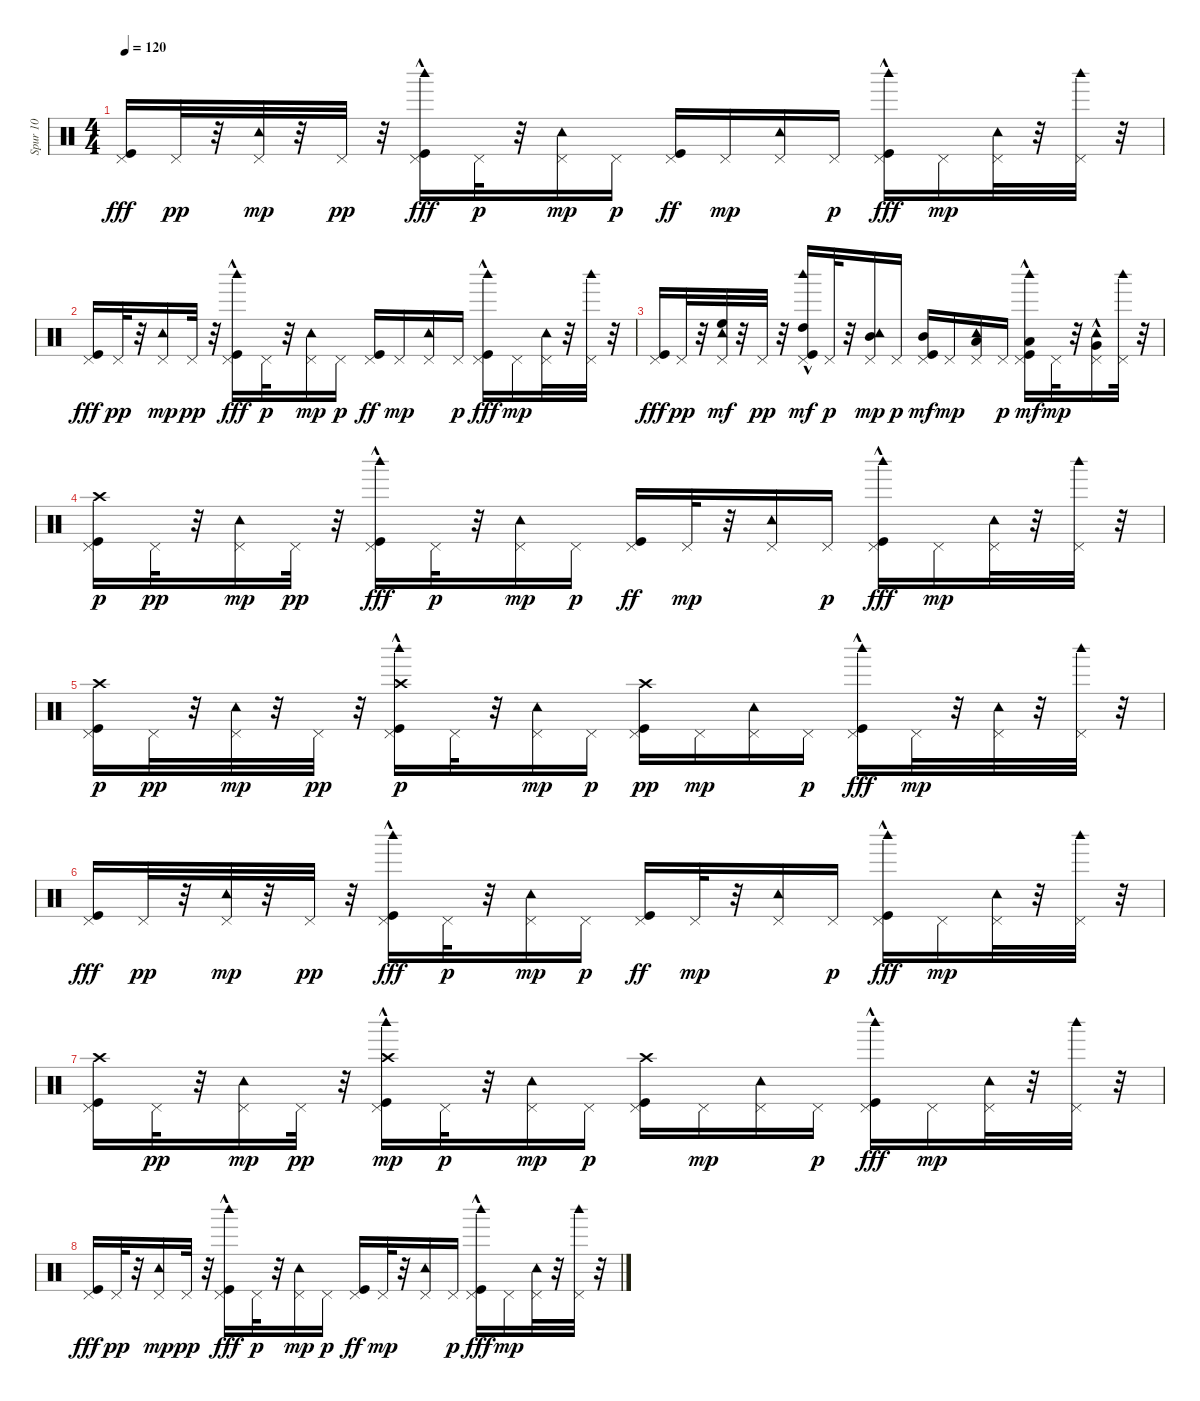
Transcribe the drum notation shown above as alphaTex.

\track ("Spur 10" "Spur 10") {instrument percussion}
\staff {score}
\articulation defaults
\ts (4 4)
\tempo 120
\clef neutral
\ks c
("Pedal Hi-Hat (hit)" "Kick (hit)").16{dy fff} "Pedal Hi-Hat (hit)".32{dy pp} r.32 ("Pedal Hi-Hat (hit)" "Tambourine (hit)").32{dy mp} r.32 "Pedal Hi-Hat (hit)".32{dy pp} r.32 ("Kick (hit)" "Pedal Hi-Hat (hit)" "Woodblock high (hit)"{hac}).16{dy fff} "Pedal Hi-Hat (hit)".32{dy p} r.32 ("Pedal Hi-Hat (hit)" "Tambourine (hit)").16{dy mp} "Pedal Hi-Hat (hit)".16{dy p} ("Kick (hit)" "Pedal Hi-Hat (hit)").16{dy ff} "Pedal Hi-Hat (hit)".16{dy mp} ("Pedal Hi-Hat (hit)" "Tambourine (hit)").16 "Pedal Hi-Hat (hit)".16{dy p} ("Kick (hit)"{hac} "Pedal Hi-Hat (hit)" "Woodblock high (hit)").16{dy fff} "Pedal Hi-Hat (hit)".16{dy mp} ("Pedal Hi-Hat (hit)" "Tambourine (hit)").32 r.32 ("Pedal Hi-Hat (hit)" "Woodblock high (hit)").32 r.32 |
("Pedal Hi-Hat (hit)" "Kick (hit)").16{dy fff} "Pedal Hi-Hat (hit)".32{dy pp} r.32 ("Pedal Hi-Hat (hit)" "Tambourine (hit)").16{dy mp} "Pedal Hi-Hat (hit)".32{dy pp} r.32 ("Kick (hit)" "Pedal Hi-Hat (hit)" "Woodblock high (hit)"{hac}).16{dy fff} "Pedal Hi-Hat (hit)".32{dy p} r.32 ("Pedal Hi-Hat (hit)" "Tambourine (hit)").16{dy mp} "Pedal Hi-Hat (hit)".16{dy p} ("Kick (hit)" "Pedal Hi-Hat (hit)").16{dy ff} "Pedal Hi-Hat (hit)".16{dy mp} ("Pedal Hi-Hat (hit)" "Tambourine (hit)").16 "Pedal Hi-Hat (hit)".16{dy p} ("Kick (hit)"{hac} "Pedal Hi-Hat (hit)" "Woodblock high (hit)").16{dy fff} "Pedal Hi-Hat (hit)".16{dy mp} ("Pedal Hi-Hat (hit)" "Tambourine (hit)").32 r.32 ("Pedal Hi-Hat (hit)" "Woodblock high (hit)").32 r.32 |
("Pedal Hi-Hat (hit)" "Kick (hit)").16{dy fff} "Pedal Hi-Hat (hit)".32{dy pp} r.32 ("Pedal Hi-Hat (hit)" "Tambourine (hit)" "High Floor Tom (hit)").32{dy mf} r.32 "Pedal Hi-Hat (hit)".32{dy pp} r.32 ("Kick (hit)" "Pedal Hi-Hat (hit)" "Woodblock high (hit)"{hac} "High Tom (hit)").16{dy mf} "Pedal Hi-Hat (hit)".32{dy p} r.32 ("Pedal Hi-Hat (hit)" "Tambourine (hit)" "Mid Tom (hit)").16{dy mp} "Pedal Hi-Hat (hit)".16{dy p} ("Kick (hit)" "Pedal Hi-Hat (hit)" "Mid Tom (hit)").16{dy mf} "Pedal Hi-Hat (hit)".16{dy mp} ("Pedal Hi-Hat (hit)" "Tambourine (hit)" "Low Tom (hit)").16 "Pedal Hi-Hat (hit)".16{dy p} ("Kick (hit)"{hac} "Pedal Hi-Hat (hit)" "Woodblock high (hit)" "Low Tom (hit)").16{dy mf} "Pedal Hi-Hat (hit)".32{dy mp} r.32 ("Pedal Hi-Hat (hit)" "Tambourine (hit)" "Very Low Tom (hit)"{hac}).16 ("Pedal Hi-Hat (hit)" "Woodblock high (hit)").32 r.32 |
("Pedal Hi-Hat (hit)" "Kick (hit)" "Crash high (hit)").16{dy p} "Pedal Hi-Hat (hit)".32{dy pp} r.32 ("Pedal Hi-Hat (hit)" "Tambourine (hit)").16{dy mp} "Pedal Hi-Hat (hit)".32{dy pp} r.32 ("Kick (hit)" "Pedal Hi-Hat (hit)" "Woodblock high (hit)"{hac}).16{dy fff} "Pedal Hi-Hat (hit)".32{dy p} r.32 ("Pedal Hi-Hat (hit)" "Tambourine (hit)").16{dy mp} "Pedal Hi-Hat (hit)".16{dy p} ("Kick (hit)" "Pedal Hi-Hat (hit)").16{dy ff} "Pedal Hi-Hat (hit)".32{dy mp} r.32 ("Pedal Hi-Hat (hit)" "Tambourine (hit)").16 "Pedal Hi-Hat (hit)".16{dy p} ("Kick (hit)"{hac} "Pedal Hi-Hat (hit)" "Woodblock high (hit)").16{dy fff} "Pedal Hi-Hat (hit)".16{dy mp} ("Pedal Hi-Hat (hit)" "Tambourine (hit)").32 r.32 ("Pedal Hi-Hat (hit)" "Woodblock high (hit)").32 r.32 |
("Pedal Hi-Hat (hit)" "Kick (hit)" "Crash high (hit)").16{dy p} "Pedal Hi-Hat (hit)".32{dy pp} r.32 ("Pedal Hi-Hat (hit)" "Tambourine (hit)").32{dy mp} r.32 "Pedal Hi-Hat (hit)".32{dy pp} r.32 ("Kick (hit)" "Pedal Hi-Hat (hit)" "Woodblock high (hit)"{hac} "Crash high (hit)").16{dy p} "Pedal Hi-Hat (hit)".32 r.32 ("Pedal Hi-Hat (hit)" "Tambourine (hit)").16{dy mp} "Pedal Hi-Hat (hit)".16{dy p} ("Kick (hit)" "Pedal Hi-Hat (hit)" "Crash high (hit)").16{dy pp} "Pedal Hi-Hat (hit)".16{dy mp} ("Pedal Hi-Hat (hit)" "Tambourine (hit)").16 "Pedal Hi-Hat (hit)".16{dy p} ("Kick (hit)"{hac} "Pedal Hi-Hat (hit)" "Woodblock high (hit)").16{dy fff} "Pedal Hi-Hat (hit)".32{dy mp} r.32 ("Pedal Hi-Hat (hit)" "Tambourine (hit)").32 r.32 ("Pedal Hi-Hat (hit)" "Woodblock high (hit)").32 r.32 |
("Pedal Hi-Hat (hit)" "Kick (hit)").16{dy fff} "Pedal Hi-Hat (hit)".32{dy pp} r.32 ("Pedal Hi-Hat (hit)" "Tambourine (hit)").32{dy mp} r.32 "Pedal Hi-Hat (hit)".32{dy pp} r.32 ("Kick (hit)" "Pedal Hi-Hat (hit)" "Woodblock high (hit)"{hac}).16{dy fff} "Pedal Hi-Hat (hit)".32{dy p} r.32 ("Pedal Hi-Hat (hit)" "Tambourine (hit)").16{dy mp} "Pedal Hi-Hat (hit)".16{dy p} ("Kick (hit)" "Pedal Hi-Hat (hit)").16{dy ff} "Pedal Hi-Hat (hit)".32{dy mp} r.32 ("Pedal Hi-Hat (hit)" "Tambourine (hit)").16 "Pedal Hi-Hat (hit)".16{dy p} ("Kick (hit)"{hac} "Pedal Hi-Hat (hit)" "Woodblock high (hit)").16{dy fff} "Pedal Hi-Hat (hit)".16{dy mp} ("Pedal Hi-Hat (hit)" "Tambourine (hit)").32 r.32 ("Pedal Hi-Hat (hit)" "Woodblock high (hit)").32 r.32 |
("Pedal Hi-Hat (hit)" "Kick (hit)" "Crash high (hit)").16 "Pedal Hi-Hat (hit)".32{dy pp} r.32 ("Pedal Hi-Hat (hit)" "Tambourine (hit)").16{dy mp} "Pedal Hi-Hat (hit)".32{dy pp} r.32 ("Kick (hit)" "Pedal Hi-Hat (hit)" "Woodblock high (hit)"{hac} "Crash high (hit)").16{dy mp} "Pedal Hi-Hat (hit)".32{dy p} r.32 ("Pedal Hi-Hat (hit)" "Tambourine (hit)").16{dy mp} "Pedal Hi-Hat (hit)".16{dy p} ("Kick (hit)" "Pedal Hi-Hat (hit)" "Crash high (hit)").16 "Pedal Hi-Hat (hit)".16{dy mp} ("Pedal Hi-Hat (hit)" "Tambourine (hit)").16 "Pedal Hi-Hat (hit)".16{dy p} ("Kick (hit)"{hac} "Pedal Hi-Hat (hit)" "Woodblock high (hit)").16{dy fff} "Pedal Hi-Hat (hit)".16{dy mp} ("Pedal Hi-Hat (hit)" "Tambourine (hit)").32 r.32 ("Pedal Hi-Hat (hit)" "Woodblock high (hit)").32 r.32 |
("Pedal Hi-Hat (hit)" "Kick (hit)").16{dy fff} "Pedal Hi-Hat (hit)".32{dy pp} r.32 ("Pedal Hi-Hat (hit)" "Tambourine (hit)").16{dy mp} "Pedal Hi-Hat (hit)".32{dy pp} r.32 ("Kick (hit)" "Pedal Hi-Hat (hit)" "Woodblock high (hit)"{hac}).16{dy fff} "Pedal Hi-Hat (hit)".32{dy p} r.32 ("Pedal Hi-Hat (hit)" "Tambourine (hit)").16{dy mp} "Pedal Hi-Hat (hit)".16{dy p} ("Kick (hit)" "Pedal Hi-Hat (hit)").16{dy ff} "Pedal Hi-Hat (hit)".32{dy mp} r.32 ("Pedal Hi-Hat (hit)" "Tambourine (hit)").16 "Pedal Hi-Hat (hit)".16{dy p} ("Kick (hit)"{hac} "Pedal Hi-Hat (hit)" "Woodblock high (hit)").16{dy fff} "Pedal Hi-Hat (hit)".16{dy mp} ("Pedal Hi-Hat (hit)" "Tambourine (hit)").32 r.32 ("Pedal Hi-Hat (hit)" "Woodblock high (hit)").32 r.32
